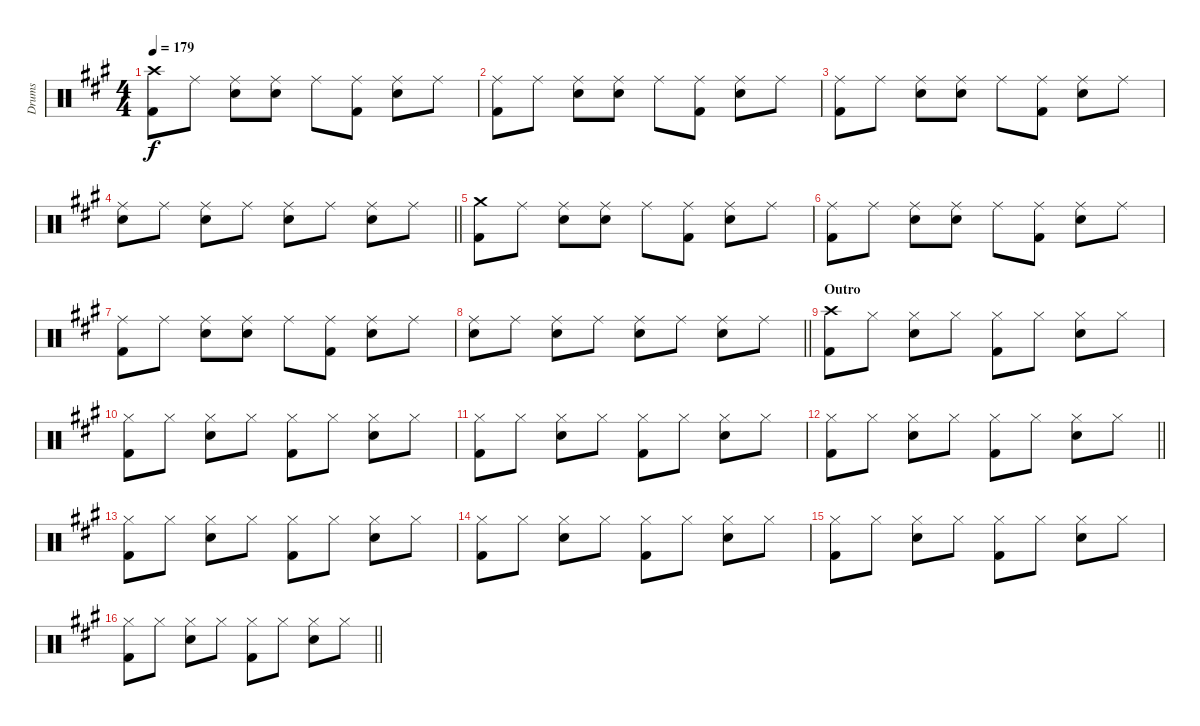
\track ("Drums" "Drums") {instrument percussion}
\staff {score}
\articulation defaults
\ts (4 4)
\tempo 179
\clef neutral
\ks a
("Crash high (hit)" "Kick (hit) 2").8{dy f} "Ride (middle)".8 ("Ride (middle)" "Electric Snare (hit)").8 ("Ride (middle)" "Electric Snare (hit)").8 "Ride (middle)".8 ("Ride (middle)" "Kick (hit) 2").8 ("Ride (middle)" "Electric Snare (hit)").8 "Ride (middle)".8 |
("Ride (middle)" "Kick (hit) 2").8 "Ride (middle)".8 ("Ride (middle)" "Electric Snare (hit)").8 ("Ride (middle)" "Electric Snare (hit)").8 "Ride (middle)".8 ("Ride (middle)" "Kick (hit) 2").8 ("Ride (middle)" "Electric Snare (hit)").8 "Ride (middle)".8 |
("Ride (middle)" "Kick (hit) 2").8 "Ride (middle)".8 ("Ride (middle)" "Electric Snare (hit)").8 ("Ride (middle)" "Electric Snare (hit)").8 "Ride (middle)".8 ("Ride (middle)" "Kick (hit) 2").8 ("Ride (middle)" "Electric Snare (hit)").8 "Ride (middle)".8 |
\barLineRight lightlight
("Ride (middle)" "Electric Snare (hit)").8 "Ride (middle)".8 ("Ride (middle)" "Electric Snare (hit)").8 "Ride (middle)".8 ("Ride (middle)" "Electric Snare (hit)").8 "Ride (middle)".8 ("Ride (middle)" "Electric Snare (hit)").8 "Ride (middle)".8 |
("Crash medium (hit)" "Kick (hit) 2").8 "Ride (middle)".8 ("Ride (middle)" "Electric Snare (hit)").8 ("Ride (middle)" "Electric Snare (hit)").8 "Ride (middle)".8 ("Ride (middle)" "Kick (hit) 2").8 ("Ride (middle)" "Electric Snare (hit)").8 "Ride (middle)".8 |
("Ride (middle)" "Kick (hit) 2").8 "Ride (middle)".8 ("Ride (middle)" "Electric Snare (hit)").8 ("Ride (middle)" "Electric Snare (hit)").8 "Ride (middle)".8 ("Ride (middle)" "Kick (hit) 2").8 ("Ride (middle)" "Electric Snare (hit)").8 "Ride (middle)".8 |
("Ride (middle)" "Kick (hit) 2").8 "Ride (middle)".8 ("Ride (middle)" "Electric Snare (hit)").8 ("Ride (middle)" "Electric Snare (hit)").8 "Ride (middle)".8 ("Ride (middle)" "Kick (hit) 2").8 ("Ride (middle)" "Electric Snare (hit)").8 "Ride (middle)".8 |
\barLineRight lightlight
("Ride (middle)" "Electric Snare (hit)").8 "Ride (middle)".8 ("Ride (middle)" "Electric Snare (hit)").8 "Ride (middle)".8 ("Ride (middle)" "Electric Snare (hit)").8 "Ride (middle)".8 ("Ride (middle)" "Electric Snare (hit)").8 "Ride (middle)".8 |
\section ("" "Outro")
("Crash high (hit)" "Kick (hit) 2").8 "Hi-Hat (closed)".8 ("Hi-Hat (closed)" "Electric Snare (hit)").8 "Hi-Hat (closed)".8 ("Hi-Hat (closed)" "Kick (hit) 2").8 "Hi-Hat (closed)".8 ("Hi-Hat (closed)" "Electric Snare (hit)").8 "Hi-Hat (closed)".8 |
("Hi-Hat (closed)" "Kick (hit) 2").8 "Hi-Hat (closed)".8 ("Hi-Hat (closed)" "Electric Snare (hit)").8 "Hi-Hat (closed)".8 ("Hi-Hat (closed)" "Kick (hit) 2").8 "Hi-Hat (closed)".8 ("Hi-Hat (closed)" "Electric Snare (hit)").8 "Hi-Hat (closed)".8 |
("Hi-Hat (closed)" "Kick (hit) 2").8 "Hi-Hat (closed)".8 ("Hi-Hat (closed)" "Electric Snare (hit)").8 "Hi-Hat (closed)".8 ("Hi-Hat (closed)" "Kick (hit) 2").8 "Hi-Hat (closed)".8 ("Hi-Hat (closed)" "Electric Snare (hit)").8 "Hi-Hat (closed)".8 |
\barLineRight lightlight
("Hi-Hat (closed)" "Kick (hit) 2").8 "Hi-Hat (closed)".8 ("Hi-Hat (closed)" "Electric Snare (hit)").8 "Hi-Hat (closed)".8 ("Hi-Hat (closed)" "Kick (hit) 2").8 "Hi-Hat (closed)".8 ("Hi-Hat (closed)" "Electric Snare (hit)").8 "Hi-Hat (closed)".8 |
("Hi-Hat (closed)" "Kick (hit) 2").8 "Hi-Hat (closed)".8 ("Hi-Hat (closed)" "Electric Snare (hit)").8 "Hi-Hat (closed)".8 ("Hi-Hat (closed)" "Kick (hit) 2").8 "Hi-Hat (closed)".8 ("Hi-Hat (closed)" "Electric Snare (hit)").8 "Hi-Hat (closed)".8 |
("Hi-Hat (closed)" "Kick (hit) 2").8 "Hi-Hat (closed)".8 ("Hi-Hat (closed)" "Electric Snare (hit)").8 "Hi-Hat (closed)".8 ("Hi-Hat (closed)" "Kick (hit) 2").8 "Hi-Hat (closed)".8 ("Hi-Hat (closed)" "Electric Snare (hit)").8 "Hi-Hat (closed)".8 |
("Hi-Hat (closed)" "Kick (hit) 2").8 "Hi-Hat (closed)".8 ("Hi-Hat (closed)" "Electric Snare (hit)").8 "Hi-Hat (closed)".8 ("Hi-Hat (closed)" "Kick (hit) 2").8 "Hi-Hat (closed)".8 ("Hi-Hat (closed)" "Electric Snare (hit)").8 "Hi-Hat (closed)".8 |
\barLineRight lightlight
("Hi-Hat (closed)" "Kick (hit) 2").8 "Hi-Hat (closed)".8 ("Hi-Hat (closed)" "Electric Snare (hit)").8 "Hi-Hat (closed)".8 ("Hi-Hat (closed)" "Kick (hit) 2").8 "Hi-Hat (closed)".8 ("Hi-Hat (closed)" "Electric Snare (hit)").8 "Hi-Hat (closed)".8
